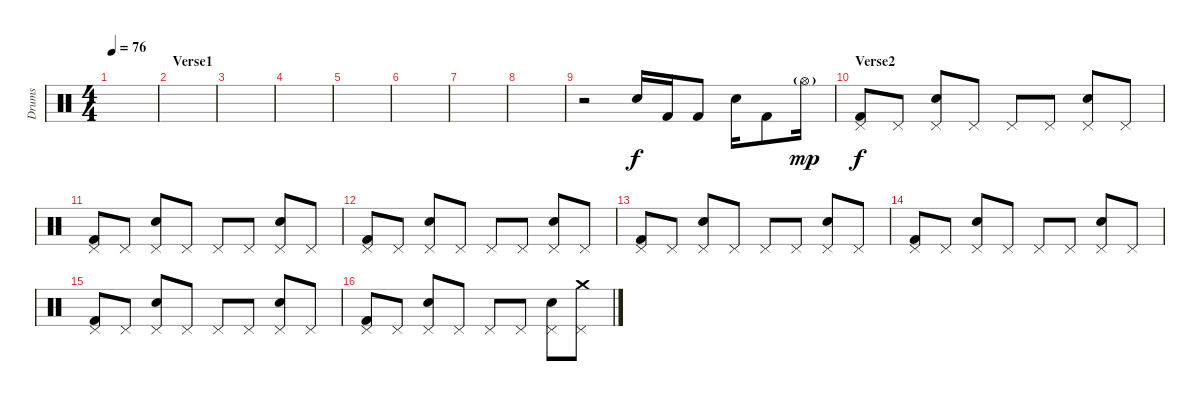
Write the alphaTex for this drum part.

\track ("Drums" "Drums") {instrument percussion}
\staff {score}
\articulation defaults
\ts (4 4)
\tempo 76
\clef neutral
\ks c
|
\section ("" "Verse1")
|
|
|
|
|
|
|
r.2 "Electric Snare (hit)".16 "Kick (hit) 2".16 "Kick (hit) 2".8 "Electric Snare (hit)".16 "Kick (hit) 2".8 "Hi-Hat (open)"{g}.16{dy mp} |
\section ("" "Verse2")
("Pedal Hi-Hat (hit)" "Kick (hit) 2").8{dy f} "Pedal Hi-Hat (hit)".8 ("Pedal Hi-Hat (hit)" "Electric Snare (hit)").8 "Pedal Hi-Hat (hit)".8 "Pedal Hi-Hat (hit)".8 "Pedal Hi-Hat (hit)".8 ("Pedal Hi-Hat (hit)" "Electric Snare (hit)").8 "Pedal Hi-Hat (hit)".8 |
("Pedal Hi-Hat (hit)" "Kick (hit) 2").8 "Pedal Hi-Hat (hit)".8 ("Pedal Hi-Hat (hit)" "Electric Snare (hit)").8 "Pedal Hi-Hat (hit)".8 "Pedal Hi-Hat (hit)".8 "Pedal Hi-Hat (hit)".8 ("Pedal Hi-Hat (hit)" "Electric Snare (hit)").8 "Pedal Hi-Hat (hit)".8 |
("Pedal Hi-Hat (hit)" "Kick (hit) 2").8 "Pedal Hi-Hat (hit)".8 ("Pedal Hi-Hat (hit)" "Electric Snare (hit)").8 "Pedal Hi-Hat (hit)".8 "Pedal Hi-Hat (hit)".8 "Pedal Hi-Hat (hit)".8 ("Pedal Hi-Hat (hit)" "Electric Snare (hit)").8 "Pedal Hi-Hat (hit)".8 |
("Pedal Hi-Hat (hit)" "Kick (hit) 2").8 "Pedal Hi-Hat (hit)".8 ("Pedal Hi-Hat (hit)" "Electric Snare (hit)").8 "Pedal Hi-Hat (hit)".8 "Pedal Hi-Hat (hit)".8 "Pedal Hi-Hat (hit)".8 ("Pedal Hi-Hat (hit)" "Electric Snare (hit)").8 "Pedal Hi-Hat (hit)".8 |
("Pedal Hi-Hat (hit)" "Kick (hit) 2").8 "Pedal Hi-Hat (hit)".8 ("Pedal Hi-Hat (hit)" "Electric Snare (hit)").8 "Pedal Hi-Hat (hit)".8 "Pedal Hi-Hat (hit)".8 "Pedal Hi-Hat (hit)".8 ("Pedal Hi-Hat (hit)" "Electric Snare (hit)").8 "Pedal Hi-Hat (hit)".8 |
("Pedal Hi-Hat (hit)" "Kick (hit) 2").8 "Pedal Hi-Hat (hit)".8 ("Pedal Hi-Hat (hit)" "Electric Snare (hit)").8 "Pedal Hi-Hat (hit)".8 "Pedal Hi-Hat (hit)".8 "Pedal Hi-Hat (hit)".8 ("Pedal Hi-Hat (hit)" "Electric Snare (hit)").8 "Pedal Hi-Hat (hit)".8 |
("Pedal Hi-Hat (hit)" "Kick (hit) 2").8 "Pedal Hi-Hat (hit)".8 ("Pedal Hi-Hat (hit)" "Electric Snare (hit)").8 "Pedal Hi-Hat (hit)".8 "Pedal Hi-Hat (hit)".8 "Pedal Hi-Hat (hit)".8 ("Pedal Hi-Hat (hit)" "Electric Snare (hit)").8 ("Pedal Hi-Hat (hit)" "Crash medium (hit)").8
